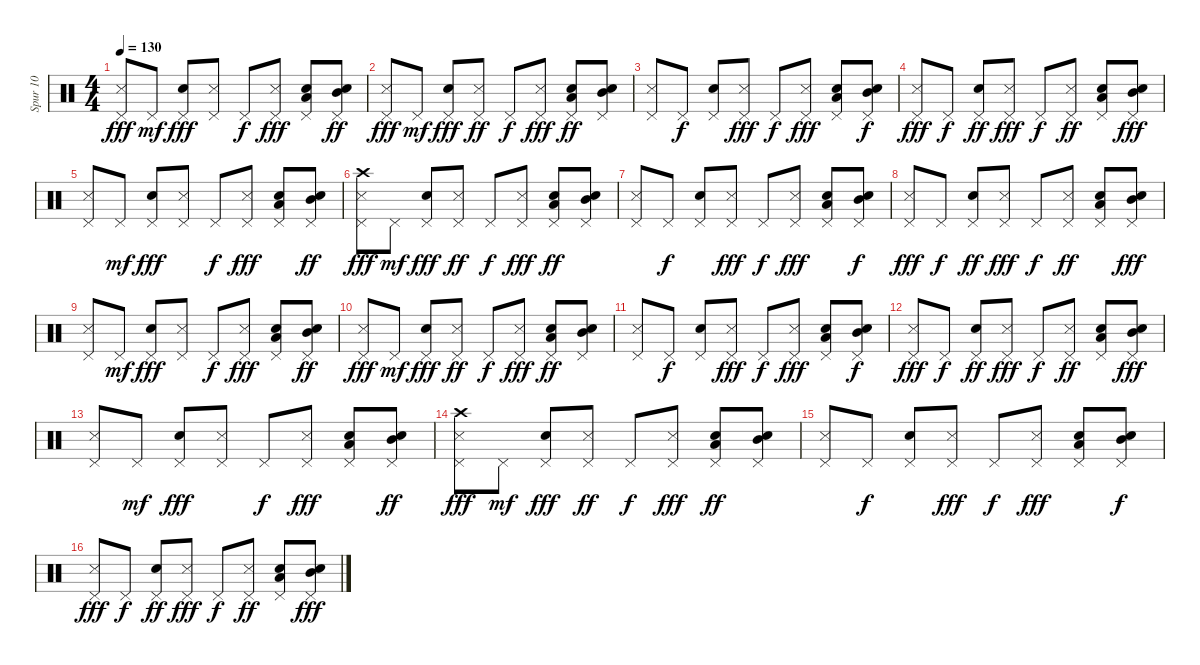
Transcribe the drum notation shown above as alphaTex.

\track ("Spur 10" "Spur 10") {instrument percussion}
\staff {score}
\articulation defaults
\ts (4 4)
\tempo 130
\clef neutral
\ks c
("Pedal Hi-Hat (hit)" "Metronome (hit)").8{dy fff} "Pedal Hi-Hat (hit)".8{dy mf} ("Pedal Hi-Hat (hit)" "Snare (hit) 2").8{dy fff} ("Pedal Hi-Hat (hit)" "Metronome (hit)").8 "Pedal Hi-Hat (hit)".8{dy f} ("Pedal Hi-Hat (hit)" "Metronome (hit)").8{dy fff} ("Low Tom (hit)" "Pedal Hi-Hat (hit)" "Snare (hit) 2").8 ("Mid Tom (hit)" "Pedal Hi-Hat (hit)" "Snare (hit) 2").8{dy ff} |
("Pedal Hi-Hat (hit)" "Metronome (hit)").8{dy fff} "Pedal Hi-Hat (hit)".8{dy mf} ("Pedal Hi-Hat (hit)" "Snare (hit) 2").8{dy fff} ("Metronome (hit)" "Pedal Hi-Hat (hit)").8{dy ff} "Pedal Hi-Hat (hit)".8{dy f} ("Metronome (hit)" "Pedal Hi-Hat (hit)").8{dy fff} ("Snare (hit) 2" "Low Tom (hit)" "Pedal Hi-Hat (hit)").8{dy ff} ("Snare (hit) 2" "Mid Tom (hit)" "Pedal Hi-Hat (hit)").8 |
("Metronome (hit)" "Pedal Hi-Hat (hit)").8 "Pedal Hi-Hat (hit)".8{dy f} ("Snare (hit) 2" "Pedal Hi-Hat (hit)").8 ("Metronome (hit)" "Pedal Hi-Hat (hit)").8{dy fff} "Pedal Hi-Hat (hit)".8{dy f} ("Metronome (hit)" "Pedal Hi-Hat (hit)").8{dy fff} ("Snare (hit) 2" "Low Tom (hit)" "Pedal Hi-Hat (hit)").8 ("Snare (hit) 2" "Mid Tom (hit)" "Pedal Hi-Hat (hit)").8{dy f} |
("Pedal Hi-Hat (hit)" "Metronome (hit)").8{dy fff} "Pedal Hi-Hat (hit)".8{dy f} ("Snare (hit) 2" "Pedal Hi-Hat (hit)").8{dy ff} ("Metronome (hit)" "Pedal Hi-Hat (hit)").8{dy fff} "Pedal Hi-Hat (hit)".8{dy f} ("Metronome (hit)" "Pedal Hi-Hat (hit)").8{dy ff} ("Low Tom (hit)" "Snare (hit) 2" "Pedal Hi-Hat (hit)").8 ("Mid Tom (hit)" "Snare (hit) 2" "Pedal Hi-Hat (hit)").8{dy fff} |
("Pedal Hi-Hat (hit)" "Metronome (hit)").8 "Pedal Hi-Hat (hit)".8{dy mf} ("Pedal Hi-Hat (hit)" "Snare (hit) 2").8{dy fff} ("Pedal Hi-Hat (hit)" "Metronome (hit)").8 "Pedal Hi-Hat (hit)".8{dy f} ("Pedal Hi-Hat (hit)" "Metronome (hit)").8{dy fff} ("Low Tom (hit)" "Pedal Hi-Hat (hit)" "Snare (hit) 2").8 ("Mid Tom (hit)" "Pedal Hi-Hat (hit)" "Snare (hit) 2").8{dy ff} |
("Crash high (hit)" "Pedal Hi-Hat (hit)" "Metronome (hit)").8{dy fff} "Pedal Hi-Hat (hit)".8{dy mf} ("Pedal Hi-Hat (hit)" "Snare (hit) 2").8{dy fff} ("Metronome (hit)" "Pedal Hi-Hat (hit)").8{dy ff} "Pedal Hi-Hat (hit)".8{dy f} ("Metronome (hit)" "Pedal Hi-Hat (hit)").8{dy fff} ("Snare (hit) 2" "Low Tom (hit)" "Pedal Hi-Hat (hit)").8{dy ff} ("Snare (hit) 2" "Mid Tom (hit)" "Pedal Hi-Hat (hit)").8 |
("Metronome (hit)" "Pedal Hi-Hat (hit)").8 "Pedal Hi-Hat (hit)".8{dy f} ("Snare (hit) 2" "Pedal Hi-Hat (hit)").8 ("Metronome (hit)" "Pedal Hi-Hat (hit)").8{dy fff} "Pedal Hi-Hat (hit)".8{dy f} ("Metronome (hit)" "Pedal Hi-Hat (hit)").8{dy fff} ("Snare (hit) 2" "Low Tom (hit)" "Pedal Hi-Hat (hit)").8 ("Snare (hit) 2" "Mid Tom (hit)" "Pedal Hi-Hat (hit)").8{dy f} |
("Pedal Hi-Hat (hit)" "Metronome (hit)").8{dy fff} "Pedal Hi-Hat (hit)".8{dy f} ("Snare (hit) 2" "Pedal Hi-Hat (hit)").8{dy ff} ("Metronome (hit)" "Pedal Hi-Hat (hit)").8{dy fff} "Pedal Hi-Hat (hit)".8{dy f} ("Metronome (hit)" "Pedal Hi-Hat (hit)").8{dy ff} ("Low Tom (hit)" "Snare (hit) 2" "Pedal Hi-Hat (hit)").8 ("Mid Tom (hit)" "Snare (hit) 2" "Pedal Hi-Hat (hit)").8{dy fff} |
("Pedal Hi-Hat (hit)" "Metronome (hit)").8 "Pedal Hi-Hat (hit)".8{dy mf} ("Pedal Hi-Hat (hit)" "Snare (hit) 2").8{dy fff} ("Pedal Hi-Hat (hit)" "Metronome (hit)").8 "Pedal Hi-Hat (hit)".8{dy f} ("Pedal Hi-Hat (hit)" "Metronome (hit)").8{dy fff} ("Low Tom (hit)" "Pedal Hi-Hat (hit)" "Snare (hit) 2").8 ("Mid Tom (hit)" "Pedal Hi-Hat (hit)" "Snare (hit) 2").8{dy ff} |
("Pedal Hi-Hat (hit)" "Metronome (hit)").8{dy fff} "Pedal Hi-Hat (hit)".8{dy mf} ("Pedal Hi-Hat (hit)" "Snare (hit) 2").8{dy fff} ("Metronome (hit)" "Pedal Hi-Hat (hit)").8{dy ff} "Pedal Hi-Hat (hit)".8{dy f} ("Metronome (hit)" "Pedal Hi-Hat (hit)").8{dy fff} ("Snare (hit) 2" "Low Tom (hit)" "Pedal Hi-Hat (hit)").8{dy ff} ("Snare (hit) 2" "Mid Tom (hit)" "Pedal Hi-Hat (hit)").8 |
("Metronome (hit)" "Pedal Hi-Hat (hit)").8 "Pedal Hi-Hat (hit)".8{dy f} ("Snare (hit) 2" "Pedal Hi-Hat (hit)").8 ("Metronome (hit)" "Pedal Hi-Hat (hit)").8{dy fff} "Pedal Hi-Hat (hit)".8{dy f} ("Metronome (hit)" "Pedal Hi-Hat (hit)").8{dy fff} ("Snare (hit) 2" "Low Tom (hit)" "Pedal Hi-Hat (hit)").8 ("Snare (hit) 2" "Mid Tom (hit)" "Pedal Hi-Hat (hit)").8{dy f} |
("Pedal Hi-Hat (hit)" "Metronome (hit)").8{dy fff} "Pedal Hi-Hat (hit)".8{dy f} ("Snare (hit) 2" "Pedal Hi-Hat (hit)").8{dy ff} ("Metronome (hit)" "Pedal Hi-Hat (hit)").8{dy fff} "Pedal Hi-Hat (hit)".8{dy f} ("Metronome (hit)" "Pedal Hi-Hat (hit)").8{dy ff} ("Low Tom (hit)" "Snare (hit) 2" "Pedal Hi-Hat (hit)").8 ("Mid Tom (hit)" "Snare (hit) 2" "Pedal Hi-Hat (hit)").8{dy fff} |
("Pedal Hi-Hat (hit)" "Metronome (hit)").8 "Pedal Hi-Hat (hit)".8{dy mf} ("Pedal Hi-Hat (hit)" "Snare (hit) 2").8{dy fff} ("Pedal Hi-Hat (hit)" "Metronome (hit)").8 "Pedal Hi-Hat (hit)".8{dy f} ("Pedal Hi-Hat (hit)" "Metronome (hit)").8{dy fff} ("Low Tom (hit)" "Pedal Hi-Hat (hit)" "Snare (hit) 2").8 ("Mid Tom (hit)" "Pedal Hi-Hat (hit)" "Snare (hit) 2").8{dy ff} |
("Crash high (hit)" "Pedal Hi-Hat (hit)" "Metronome (hit)").8{dy fff} "Pedal Hi-Hat (hit)".8{dy mf} ("Pedal Hi-Hat (hit)" "Snare (hit) 2").8{dy fff} ("Metronome (hit)" "Pedal Hi-Hat (hit)").8{dy ff} "Pedal Hi-Hat (hit)".8{dy f} ("Metronome (hit)" "Pedal Hi-Hat (hit)").8{dy fff} ("Snare (hit) 2" "Low Tom (hit)" "Pedal Hi-Hat (hit)").8{dy ff} ("Snare (hit) 2" "Mid Tom (hit)" "Pedal Hi-Hat (hit)").8 |
("Metronome (hit)" "Pedal Hi-Hat (hit)").8 "Pedal Hi-Hat (hit)".8{dy f} ("Snare (hit) 2" "Pedal Hi-Hat (hit)").8 ("Metronome (hit)" "Pedal Hi-Hat (hit)").8{dy fff} "Pedal Hi-Hat (hit)".8{dy f} ("Metronome (hit)" "Pedal Hi-Hat (hit)").8{dy fff} ("Snare (hit) 2" "Low Tom (hit)" "Pedal Hi-Hat (hit)").8 ("Snare (hit) 2" "Mid Tom (hit)" "Pedal Hi-Hat (hit)").8{dy f} |
("Pedal Hi-Hat (hit)" "Metronome (hit)").8{dy fff} "Pedal Hi-Hat (hit)".8{dy f} ("Snare (hit) 2" "Pedal Hi-Hat (hit)").8{dy ff} ("Metronome (hit)" "Pedal Hi-Hat (hit)").8{dy fff} "Pedal Hi-Hat (hit)".8{dy f} ("Metronome (hit)" "Pedal Hi-Hat (hit)").8{dy ff} ("Low Tom (hit)" "Snare (hit) 2" "Pedal Hi-Hat (hit)").8 ("Mid Tom (hit)" "Snare (hit) 2" "Pedal Hi-Hat (hit)").8{dy fff}
